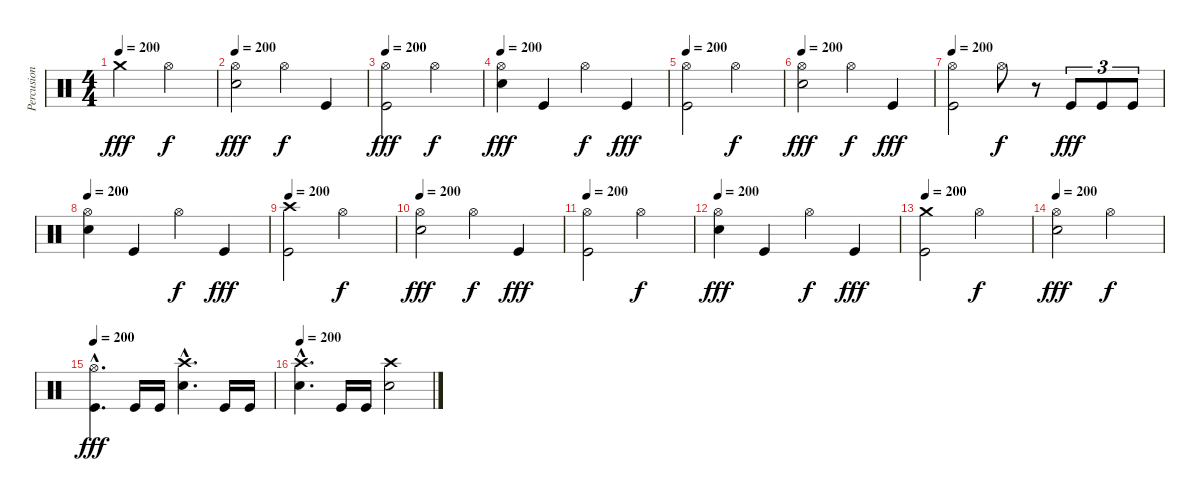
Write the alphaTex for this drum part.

\track ("Percusion" "Percusion") {instrument percussion}
\staff {score}
\articulation defaults
\ts (4 4)
\tempo 200
\clef neutral
\ks c "Crash medium (hit)".2{dy fff} "Hi-Hat (open)".2{dy f}
|
\tempo 200
("Hi-Hat (open)" "Snare (hit) 2").2{dy fff} "Hi-Hat (open)".4{dy f} "Kick (hit)".4 |
\tempo 200
("Hi-Hat (open)" "Kick (hit)").2{dy fff} "Hi-Hat (open)".2{dy f} |
\tempo 200
("Hi-Hat (open)" "Snare (hit) 2").4{dy fff} "Kick (hit)".4 "Hi-Hat (open)".4{dy f} "Kick (hit)".4{dy fff} |
\tempo 200
("Hi-Hat (open)" "Kick (hit)").2 "Hi-Hat (open)".2{dy f} |
\tempo 200
("Hi-Hat (open)" "Snare (hit) 2").2{dy fff} "Hi-Hat (open)".4{dy f} "Kick (hit)".4{dy fff} |
\tempo 200
("Hi-Hat (open)" "Kick (hit)").2 "Hi-Hat (open)".8{dy f} r.8 "Kick (hit)".8{tu (3 2) dy fff} "Kick (hit)".8{tu (3 2)} "Kick (hit)".8{tu (3 2)} |
\tempo 200
("Hi-Hat (open)" "Snare (hit) 2").4 "Kick (hit)".4 "Hi-Hat (open)".4{dy f} "Kick (hit)".4{dy fff} |
\tempo 200
("Crash high (hit)" "Kick (hit)").2 "Hi-Hat (open)".2{dy f} |
\tempo 200
("Hi-Hat (open)" "Snare (hit) 2").2{dy fff} "Hi-Hat (open)".4{dy f} "Kick (hit)".4{dy fff} |
\tempo 200
("Hi-Hat (open)" "Kick (hit)").2 "Hi-Hat (open)".2{dy f} |
\tempo 200
("Hi-Hat (open)" "Snare (hit) 2").4{dy fff} "Kick (hit)".4 "Hi-Hat (open)".4{dy f} "Kick (hit)".4{dy fff} |
\tempo 200
("Crash medium (hit)" "Kick (hit)").2 "Hi-Hat (open)".2{dy f} |
\tempo 200
("Hi-Hat (open)" "Snare (hit) 2").2{dy fff} "Hi-Hat (open)".2{dy f} |
\tempo 200
("Hi-Hat (open)"{hac} "Kick (hit)"{hac}).4{d dy fff} "Kick (hit)".16 "Kick (hit)".16 ("Crash high (hit)"{hac} "Snare (hit) 2"{hac}).4{d} "Kick (hit)".16 "Kick (hit)".16 |
\tempo 200
("Crash high (hit)"{hac} "Snare (hit) 2"{hac}).4{d} "Kick (hit)".16 "Kick (hit)".16 ("Crash high (hit)" "Snare (hit) 2").2
